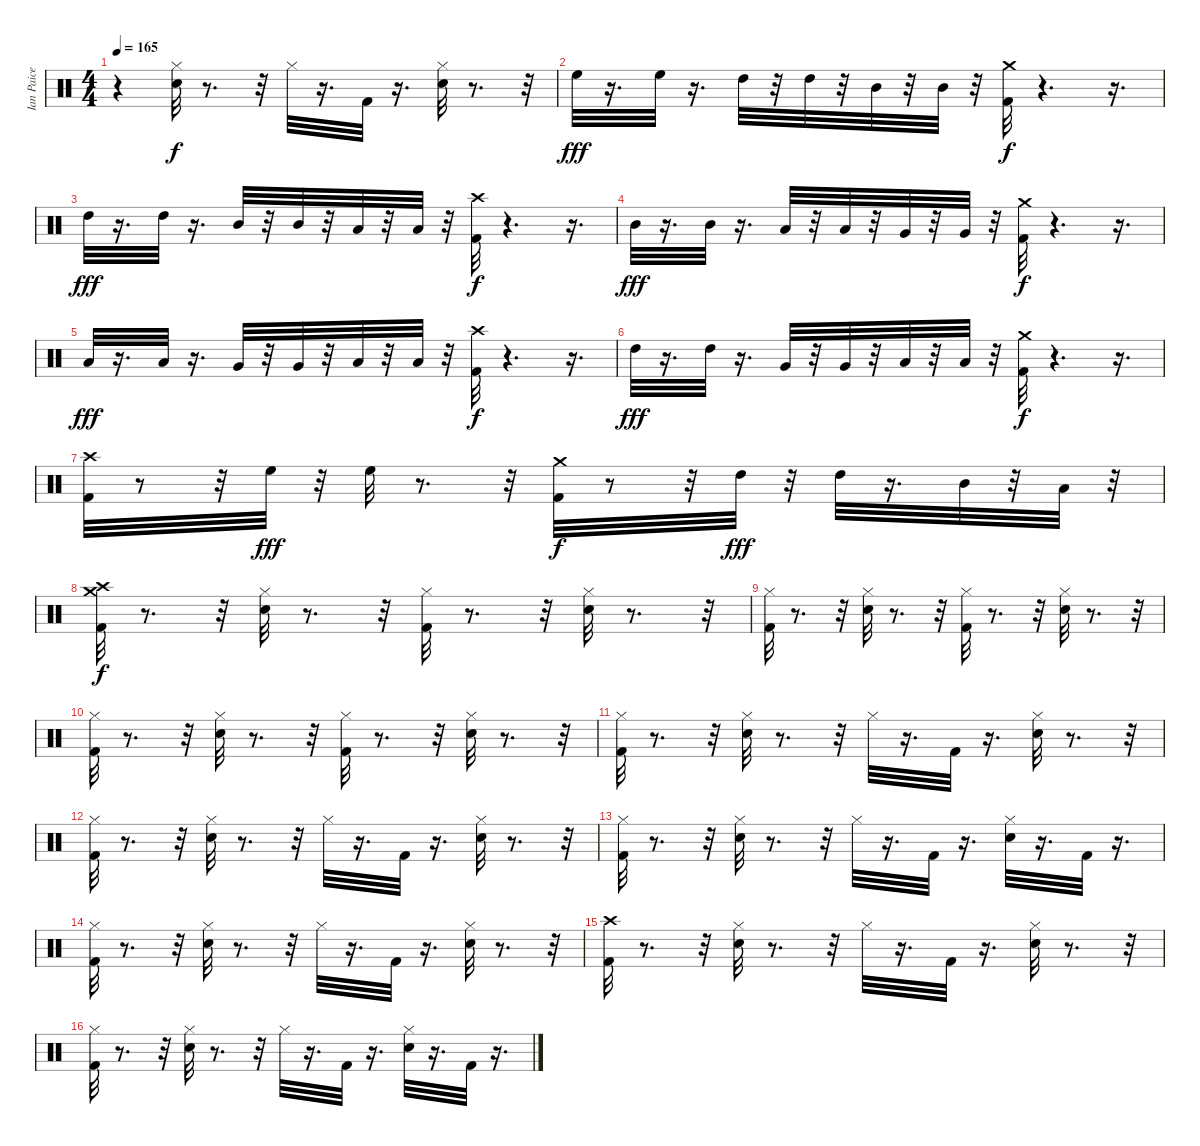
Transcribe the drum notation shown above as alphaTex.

\track ("Ian Paice" "Ian Paice") {instrument percussion}
\staff {score}
\articulation defaults
\ts (4 4)
\tempo 165
\clef neutral
\ks c
r.4{dy f} ("Hi-Hat (closed)" "Snare (hit) 2").32 r.8{d} r.32 "Hi-Hat (closed)".32 r.16{d} "Kick (hit) 2".32 r.16{d} ("Snare (hit) 2" "Hi-Hat (closed)").32 r.8{d} r.32 |
"High Floor Tom (hit)".32{dy fff} r.16{d} "High Floor Tom (hit)".32 r.16{d} "High Tom (hit)".32 r.32 "High Tom (hit)".32 r.32 "Mid Tom (hit)".32 r.32 "Mid Tom (hit)".32 r.32 ("Crash medium (hit)" "Kick (hit) 2").32{dy f} r.4{d} r.16{d} |
"High Tom (hit)".32{dy fff} r.16{d} "High Tom (hit)".32 r.16{d} "Mid Tom (hit)".32 r.32 "Mid Tom (hit)".32 r.32 "Low Tom (hit)".32 r.32 "Low Tom (hit)".32 r.32 ("Crash high (hit)" "Kick (hit) 2").32{dy f} r.4{d} r.16{d} |
"Mid Tom (hit)".32{dy fff} r.16{d} "Mid Tom (hit)".32 r.16{d} "Low Tom (hit)".32 r.32 "Low Tom (hit)".32 r.32 "Very Low Tom (hit)".32 r.32 "Very Low Tom (hit)".32 r.32 ("Crash medium (hit)" "Kick (hit) 2").32{dy f} r.4{d} r.16{d} |
"Low Tom (hit)".32{dy fff} r.16{d} "Low Tom (hit)".32 r.16{d} "Very Low Tom (hit)".32 r.32 "Very Low Tom (hit)".32 r.32 "Low Floor Tom (hit)".32 r.32 "Low Floor Tom (hit)".32 r.32 ("Crash high (hit)" "Kick (hit) 2").32{dy f} r.4{d} r.16{d} |
"High Tom (hit)".32{dy fff} r.16{d} "High Tom (hit)".32 r.16{d} "Very Low Tom (hit)".32 r.32 "Very Low Tom (hit)".32 r.32 "Low Floor Tom (hit)".32 r.32 "Low Floor Tom (hit)".32 r.32 ("Crash medium (hit)" "Kick (hit) 2").32{dy f} r.4{d} r.16{d} |
("Crash high (hit)" "Kick (hit) 2").32 r.8 r.32 "High Floor Tom (hit)".32{dy fff} r.32 "High Floor Tom (hit)".32 r.8{d} r.32 ("Crash medium (hit)" "Kick (hit) 2").32{dy f} r.8 r.32 "High Tom (hit)".32{dy fff} r.32 "High Tom (hit)".32 r.16{d} "Mid Tom (hit)".32 r.32 "Low Tom (hit)".32 r.32 |
("Crash medium (hit)" "Kick (hit) 2" "Crash high (hit)").32{dy f} r.8{d} r.32 ("Hi-Hat (closed)" "Snare (hit) 2").32 r.8{d} r.32 ("Hi-Hat (closed)" "Kick (hit) 2").32 r.8{d} r.32 ("Hi-Hat (closed)" "Snare (hit) 2").32 r.8{d} r.32 |
("Kick (hit) 2" "Hi-Hat (closed)").32 r.8{d} r.32 ("Snare (hit) 2" "Hi-Hat (closed)").32 r.8{d} r.32 ("Kick (hit) 2" "Hi-Hat (closed)").32 r.8{d} r.32 ("Snare (hit) 2" "Hi-Hat (closed)").32 r.8{d} r.32 |
("Hi-Hat (closed)" "Kick (hit) 2").32 r.8{d} r.32 ("Hi-Hat (closed)" "Snare (hit) 2").32 r.8{d} r.32 ("Hi-Hat (closed)" "Kick (hit) 2").32 r.8{d} r.32 ("Hi-Hat (closed)" "Snare (hit) 2").32 r.8{d} r.32 |
("Hi-Hat (closed)" "Kick (hit) 2").32 r.8{d} r.32 ("Hi-Hat (closed)" "Snare (hit) 2").32 r.8{d} r.32 "Hi-Hat (closed)".32 r.16{d} "Kick (hit) 2".32 r.16{d} ("Hi-Hat (closed)" "Snare (hit) 2").32 r.8{d} r.32 |
("Hi-Hat (closed)" "Kick (hit) 2").32 r.8{d} r.32 ("Hi-Hat (closed)" "Snare (hit) 2").32 r.8{d} r.32 "Hi-Hat (closed)".32 r.16{d} "Kick (hit) 2".32 r.16{d} ("Hi-Hat (closed)" "Snare (hit) 2").32 r.8{d} r.32 |
("Hi-Hat (closed)" "Kick (hit) 2").32 r.8{d} r.32 ("Hi-Hat (closed)" "Snare (hit) 2").32 r.8{d} r.32 "Hi-Hat (closed)".32 r.16{d} "Kick (hit) 2".32 r.16{d} ("Hi-Hat (closed)" "Snare (hit) 2").32 r.16{d} "Kick (hit) 2".32 r.16{d} |
("Kick (hit) 2" "Hi-Hat (closed)").32 r.8{d} r.32 ("Snare (hit) 2" "Hi-Hat (closed)").32 r.8{d} r.32 "Hi-Hat (closed)".32 r.16{d} "Kick (hit) 2".32 r.16{d} ("Snare (hit) 2" "Hi-Hat (closed)").32 r.8{d} r.32 |
("Crash high (hit)" "Kick (hit) 2").32 r.8{d} r.32 ("Hi-Hat (closed)" "Snare (hit) 2").32 r.8{d} r.32 "Hi-Hat (closed)".32 r.16{d} "Kick (hit) 2".32 r.16{d} ("Hi-Hat (closed)" "Snare (hit) 2").32 r.8{d} r.32 |
("Kick (hit) 2" "Hi-Hat (closed)").32 r.8{d} r.32 ("Snare (hit) 2" "Hi-Hat (closed)").32 r.8{d} r.32 "Hi-Hat (closed)".32 r.16{d} "Kick (hit) 2".32 r.16{d} ("Snare (hit) 2" "Hi-Hat (closed)").32 r.16{d} "Kick (hit) 2".32 r.16{d}
